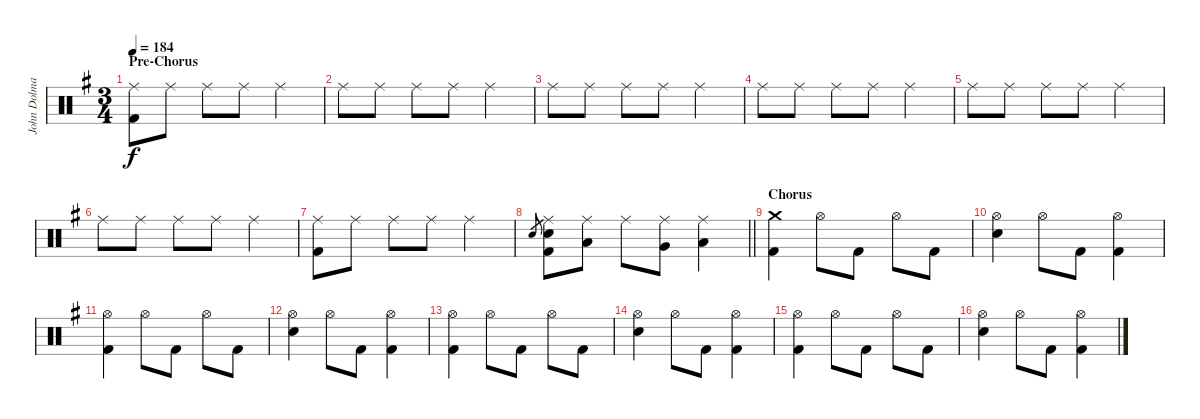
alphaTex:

\track ("John Dolmayan [Drums]" "John Dolma") {instrument percussion}
\staff {score}
\articulation defaults
\ts (3 4)
\section ("" "Pre-Chorus")
\tempo 184
\clef neutral
\ks eminor
("Ride (middle)" "Kick (hit) 2").8{dy f} "Ride (middle)".8 "Ride (middle)".8 "Ride (middle)".8 "Ride (middle)".4 |
"Ride (middle)".8 "Ride (middle)".8 "Ride (middle)".8 "Ride (middle)".8 "Ride (middle)".4 |
"Ride (middle)".8 "Ride (middle)".8 "Ride (middle)".8 "Ride (middle)".8 "Ride (middle)".4 |
"Ride (middle)".8 "Ride (middle)".8 "Ride (middle)".8 "Ride (middle)".8 "Ride (middle)".4 |
"Ride (middle)".8 "Ride (middle)".8 "Ride (middle)".8 "Ride (middle)".8 "Ride (middle)".4 |
"Ride (middle)".8 "Ride (middle)".8 "Ride (middle)".8 "Ride (middle)".8 "Ride (middle)".4 |
("Ride (middle)" "Kick (hit) 2").8 "Ride (middle)".8 "Ride (middle)".8 "Ride (middle)".8 "Ride (middle)".4 |
\barLineRight lightlight "Electric Snare (hit)".8{gr}
("Ride (middle)" "Electric Snare (hit)" "Kick (hit) 2").8 ("Ride (middle)" "Low Tom (hit)").8 "Ride (middle)".8 ("Ride (middle)" "Very Low Tom (hit)").8 ("Ride (middle)" "Low Floor Tom (hit)").4 |
\section ("" "Chorus")
("Crash medium (hit)" "Kick (hit) 2").4 "Hi-Hat (open)".8 "Kick (hit) 2".8 "Hi-Hat (open)".8 "Kick (hit) 2".8 |
("Hi-Hat (open)" "Electric Snare (hit)").4 "Hi-Hat (open)".8 "Kick (hit) 2".8 ("Hi-Hat (open)" "Kick (hit) 2").4 |
("Hi-Hat (open)" "Kick (hit) 2").4 "Hi-Hat (open)".8 "Kick (hit) 2".8 "Hi-Hat (open)".8 "Kick (hit) 2".8 |
("Hi-Hat (open)" "Electric Snare (hit)").4 "Hi-Hat (open)".8 "Kick (hit) 2".8 ("Hi-Hat (open)" "Kick (hit) 2").4 |
("Hi-Hat (open)" "Kick (hit) 2").4 "Hi-Hat (open)".8 "Kick (hit) 2".8 "Hi-Hat (open)".8 "Kick (hit) 2".8 |
("Hi-Hat (open)" "Electric Snare (hit)").4 "Hi-Hat (open)".8 "Kick (hit) 2".8 ("Hi-Hat (open)" "Kick (hit) 2").4 |
("Hi-Hat (open)" "Kick (hit) 2").4 "Hi-Hat (open)".8 "Kick (hit) 2".8 "Hi-Hat (open)".8 "Kick (hit) 2".8 |
("Hi-Hat (open)" "Electric Snare (hit)").4 "Hi-Hat (open)".8 "Kick (hit) 2".8 ("Hi-Hat (open)" "Kick (hit) 2").4
